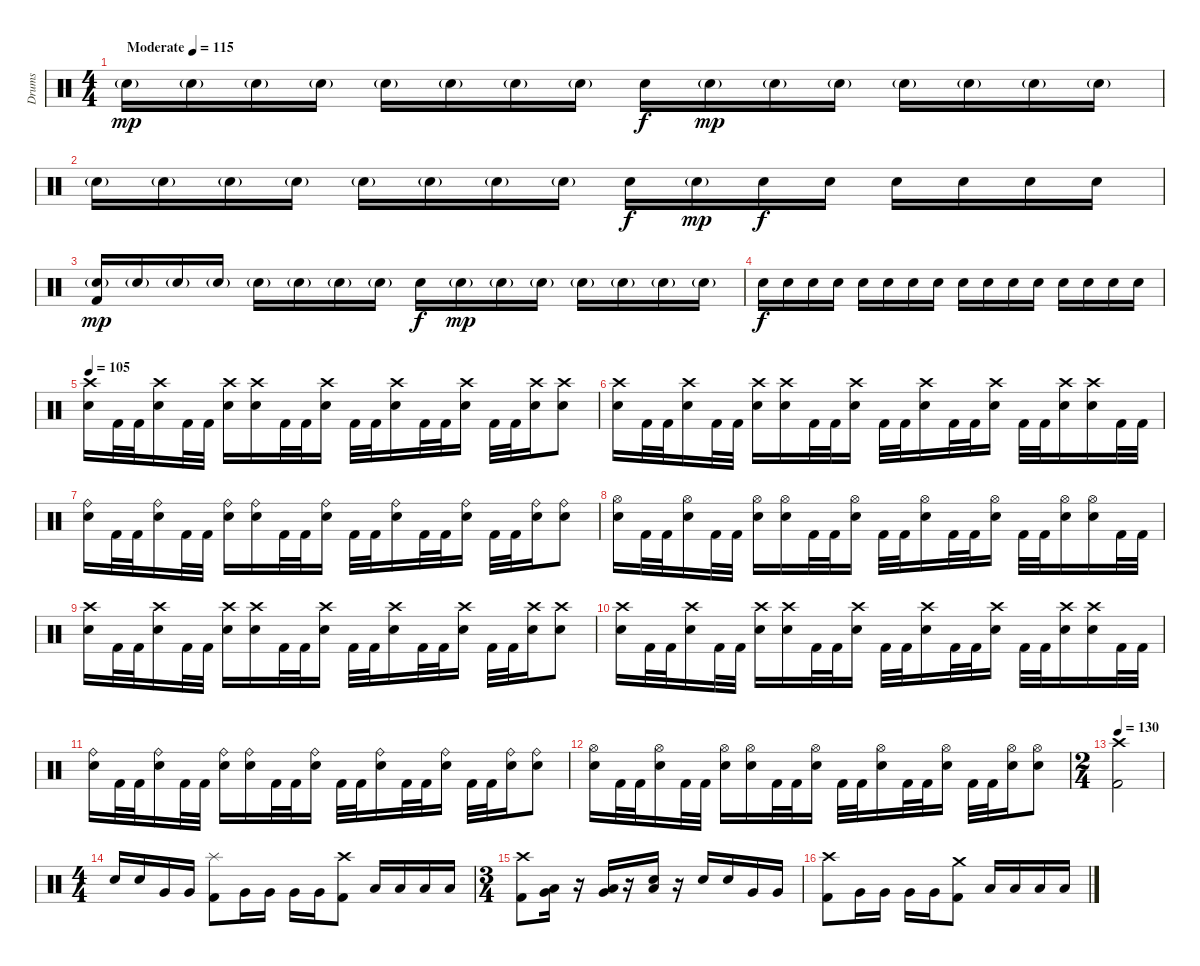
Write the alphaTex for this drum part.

\track ("Drums" "Drums") {instrument percussion}
\staff {score}
\articulation defaults
\ts (4 4)
\tempo (115 "Moderate")
\clef neutral
\ks c "Electric Snare (hit)"{g}.16{dy mp} "Electric Snare (hit)"{g}.16 "Electric Snare (hit)"{g}.16 "Electric Snare (hit)"{g}.16 "Electric Snare (hit)"{g}.16 "Electric Snare (hit)"{g}.16 "Electric Snare (hit)"{g}.16 "Electric Snare (hit)"{g}.16 "Electric Snare (hit)".16{dy f} "Electric Snare (hit)"{g}.16{dy mp} "Electric Snare (hit)"{g}.16 "Electric Snare (hit)"{g}.16 "Electric Snare (hit)"{g}.16 "Electric Snare (hit)"{g}.16 "Electric Snare (hit)"{g}.16 "Electric Snare (hit)"{g}.16
|
"Electric Snare (hit)"{g}.16 "Electric Snare (hit)"{g}.16 "Electric Snare (hit)"{g}.16 "Electric Snare (hit)"{g}.16 "Electric Snare (hit)"{g}.16 "Electric Snare (hit)"{g}.16 "Electric Snare (hit)"{g}.16 "Electric Snare (hit)"{g}.16 "Electric Snare (hit)".16{dy f} "Electric Snare (hit)"{g}.16{dy mp} "Electric Snare (hit)".16{dy f} "Electric Snare (hit)".16 "Electric Snare (hit)".16 "Electric Snare (hit)".16 "Electric Snare (hit)".16 "Electric Snare (hit)".16 |
("Electric Snare (hit)"{g} "Kick (hit) 2").16{dy mp} "Electric Snare (hit)"{g}.16 "Electric Snare (hit)"{g}.16 "Electric Snare (hit)"{g}.16 "Electric Snare (hit)"{g}.16 "Electric Snare (hit)"{g}.16 "Electric Snare (hit)"{g}.16 "Electric Snare (hit)"{g}.16 "Electric Snare (hit)".16{dy f} "Electric Snare (hit)"{g}.16{dy mp} "Electric Snare (hit)"{g}.16 "Electric Snare (hit)"{g}.16 "Electric Snare (hit)"{g}.16 "Electric Snare (hit)"{g}.16 "Electric Snare (hit)"{g}.16 "Electric Snare (hit)"{g}.16 |
"Electric Snare (hit)".16{dy f volume 5} "Electric Snare (hit)".16{volume 13} "Electric Snare (hit)".16 "Electric Snare (hit)".16 "Electric Snare (hit)".16 "Electric Snare (hit)".16 "Electric Snare (hit)".16 "Electric Snare (hit)".16 "Electric Snare (hit)".16 "Electric Snare (hit)".16 "Electric Snare (hit)".16 "Electric Snare (hit)".16 "Electric Snare (hit)".16 "Electric Snare (hit)".16 "Electric Snare (hit)".16 "Electric Snare (hit)".16 |
\tempo 105
("Crash high (hit)" "Electric Snare (hit)").16 "Kick (hit) 2".32 "Kick (hit) 2".32 ("Crash high (hit)" "Electric Snare (hit)").16 "Kick (hit) 2".32 "Kick (hit) 2".32 ("Crash high (hit)" "Electric Snare (hit)").16 ("Crash high (hit)" "Electric Snare (hit)").16 "Kick (hit) 2".32 "Kick (hit) 2".32 ("Crash high (hit)" "Electric Snare (hit)").16 "Kick (hit) 2".32 "Kick (hit) 2".32 ("Crash high (hit)" "Electric Snare (hit)").16 "Kick (hit) 2".32 "Kick (hit) 2".32 ("Crash high (hit)" "Electric Snare (hit)").16 "Kick (hit) 2".32 "Kick (hit) 2".32 ("Crash high (hit)" "Electric Snare (hit)").16 ("Crash high (hit)" "Electric Snare (hit)").8 |
("Crash high (hit)" "Electric Snare (hit)").16 "Kick (hit) 2".32 "Kick (hit) 2".32 ("Crash high (hit)" "Electric Snare (hit)").16 "Kick (hit) 2".32 "Kick (hit) 2".32 ("Crash high (hit)" "Electric Snare (hit)").16 ("Crash high (hit)" "Electric Snare (hit)").16 "Kick (hit) 2".32 "Kick (hit) 2".32 ("Crash high (hit)" "Electric Snare (hit)").16 "Kick (hit) 2".32 "Kick (hit) 2".32 ("Crash high (hit)" "Electric Snare (hit)").16 "Kick (hit) 2".32 "Kick (hit) 2".32 ("Crash high (hit)" "Electric Snare (hit)").16 "Kick (hit) 2".32 "Kick (hit) 2".32 ("Crash high (hit)" "Electric Snare (hit)").16 ("Crash high (hit)" "Electric Snare (hit)").16 "Kick (hit) 2".32 "Kick (hit) 2".32 |
("Ride (bell)" "Electric Snare (hit)").16 "Kick (hit) 2".32 "Kick (hit) 2".32 ("Ride (bell)" "Electric Snare (hit)").16 "Kick (hit) 2".32 "Kick (hit) 2".32 ("Ride (bell)" "Electric Snare (hit)").16 ("Ride (bell)" "Electric Snare (hit)").16 "Kick (hit) 2".32 "Kick (hit) 2".32 ("Ride (bell)" "Electric Snare (hit)").16 "Kick (hit) 2".32 "Kick (hit) 2".32 ("Ride (bell)" "Electric Snare (hit)").16 "Kick (hit) 2".32 "Kick (hit) 2".32 ("Ride (bell)" "Electric Snare (hit)").16 "Kick (hit) 2".32 "Kick (hit) 2".32 ("Ride (bell)" "Electric Snare (hit)").16 ("Ride (bell)" "Electric Snare (hit)").8 |
("Hi-Hat (open)" "Electric Snare (hit)").16 "Kick (hit) 2".32 "Kick (hit) 2".32 ("Hi-Hat (open)" "Electric Snare (hit)").16 "Kick (hit) 2".32 "Kick (hit) 2".32 ("Hi-Hat (open)" "Electric Snare (hit)").16 ("Hi-Hat (open)" "Electric Snare (hit)").16 "Kick (hit) 2".32 "Kick (hit) 2".32 ("Hi-Hat (open)" "Electric Snare (hit)").16 "Kick (hit) 2".32 "Kick (hit) 2".32 ("Hi-Hat (open)" "Electric Snare (hit)").16 "Kick (hit) 2".32 "Kick (hit) 2".32 ("Hi-Hat (open)" "Electric Snare (hit)").16 "Kick (hit) 2".32 "Kick (hit) 2".32 ("Hi-Hat (open)" "Electric Snare (hit)").16 ("Hi-Hat (open)" "Electric Snare (hit)").16 "Kick (hit) 2".32 "Kick (hit) 2".32 |
("Crash high (hit)" "Electric Snare (hit)").16 "Kick (hit) 2".32 "Kick (hit) 2".32 ("Crash high (hit)" "Electric Snare (hit)").16 "Kick (hit) 2".32 "Kick (hit) 2".32 ("Crash high (hit)" "Electric Snare (hit)").16 ("Crash high (hit)" "Electric Snare (hit)").16 "Kick (hit) 2".32 "Kick (hit) 2".32 ("Crash high (hit)" "Electric Snare (hit)").16 "Kick (hit) 2".32 "Kick (hit) 2".32 ("Crash high (hit)" "Electric Snare (hit)").16 "Kick (hit) 2".32 "Kick (hit) 2".32 ("Crash high (hit)" "Electric Snare (hit)").16 "Kick (hit) 2".32 "Kick (hit) 2".32 ("Crash high (hit)" "Electric Snare (hit)").16 ("Crash high (hit)" "Electric Snare (hit)").8 |
("Crash high (hit)" "Electric Snare (hit)").16 "Kick (hit) 2".32 "Kick (hit) 2".32 ("Crash high (hit)" "Electric Snare (hit)").16 "Kick (hit) 2".32 "Kick (hit) 2".32 ("Crash high (hit)" "Electric Snare (hit)").16 ("Crash high (hit)" "Electric Snare (hit)").16 "Kick (hit) 2".32 "Kick (hit) 2".32 ("Crash high (hit)" "Electric Snare (hit)").16 "Kick (hit) 2".32 "Kick (hit) 2".32 ("Crash high (hit)" "Electric Snare (hit)").16 "Kick (hit) 2".32 "Kick (hit) 2".32 ("Crash high (hit)" "Electric Snare (hit)").16 "Kick (hit) 2".32 "Kick (hit) 2".32 ("Crash high (hit)" "Electric Snare (hit)").16 ("Crash high (hit)" "Electric Snare (hit)").16 "Kick (hit) 2".32 "Kick (hit) 2".32 |
("Ride (bell)" "Electric Snare (hit)").16 "Kick (hit) 2".32 "Kick (hit) 2".32 ("Ride (bell)" "Electric Snare (hit)").16 "Kick (hit) 2".32 "Kick (hit) 2".32 ("Ride (bell)" "Electric Snare (hit)").16 ("Ride (bell)" "Electric Snare (hit)").16 "Kick (hit) 2".32 "Kick (hit) 2".32 ("Ride (bell)" "Electric Snare (hit)").16 "Kick (hit) 2".32 "Kick (hit) 2".32 ("Ride (bell)" "Electric Snare (hit)").16 "Kick (hit) 2".32 "Kick (hit) 2".32 ("Ride (bell)" "Electric Snare (hit)").16 "Kick (hit) 2".32 "Kick (hit) 2".32 ("Ride (bell)" "Electric Snare (hit)").16 ("Ride (bell)" "Electric Snare (hit)").8 |
("Hi-Hat (open)" "Electric Snare (hit)").16 "Kick (hit) 2".32 "Kick (hit) 2".32 ("Hi-Hat (open)" "Electric Snare (hit)").16 "Kick (hit) 2".32 "Kick (hit) 2".32 ("Hi-Hat (open)" "Electric Snare (hit)").16 ("Hi-Hat (open)" "Electric Snare (hit)").16 "Kick (hit) 2".32 "Kick (hit) 2".32 ("Hi-Hat (open)" "Electric Snare (hit)").16 "Kick (hit) 2".32 "Kick (hit) 2".32 ("Hi-Hat (open)" "Electric Snare (hit)").16 "Kick (hit) 2".32 "Kick (hit) 2".32 ("Hi-Hat (open)" "Electric Snare (hit)").16 "Kick (hit) 2".32 "Kick (hit) 2".32 ("Hi-Hat (open)" "Electric Snare (hit)").16 ("Hi-Hat (open)" "Electric Snare (hit)").8 |
\ts (2 4)
\tempo 130
("Crash high (hit)" "Kick (hit) 2").2 |
\ts (4 4)
"Electric Snare (hit)".16 "Electric Snare (hit)".16 "Very Low Tom (hit)".16 "Very Low Tom (hit)".16 ("Splash (hit)" "Kick (hit) 2").8 "Very Low Tom (hit)".16 "Very Low Tom (hit)".16 "Very Low Tom (hit)".16 "Very Low Tom (hit)".16 ("Crash high (hit)" "Kick (hit) 2").8 "Low Floor Tom (hit)".16 "Low Floor Tom (hit)".16 "Low Floor Tom (hit)".16 "Low Floor Tom (hit)".16 |
\ts (3 4)
("Crash high (hit)" "Kick (hit) 2").8 ("Very Low Tom (hit)" "Low Floor Tom (hit)").16 r.16 ("Very Low Tom (hit)" "Low Floor Tom (hit)").16 r.16 ("Electric Snare (hit)" "Low Floor Tom (hit)").16 r.16 "Electric Snare (hit)".16 "Electric Snare (hit)".16 "Very Low Tom (hit)".16 "Very Low Tom (hit)".16 |
("Crash high (hit)" "Kick (hit) 2").8 "Very Low Tom (hit)".16 "Very Low Tom (hit)".16 "Very Low Tom (hit)".16 "Very Low Tom (hit)".16 ("Crash medium (hit)" "Kick (hit) 2").8 "Low Floor Tom (hit)".16 "Low Floor Tom (hit)".16 "Low Floor Tom (hit)".16 "Low Floor Tom (hit)".16
